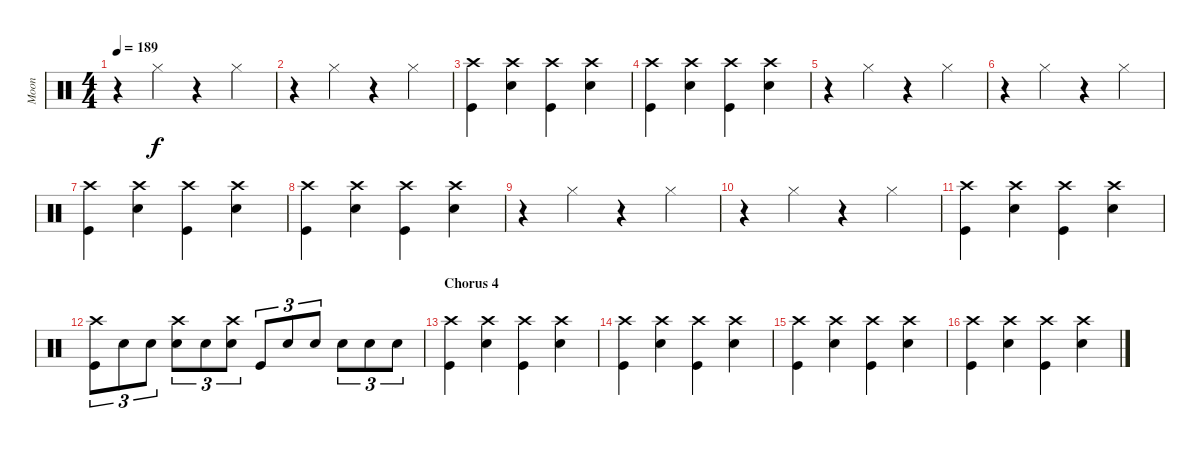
\track ("Moon" "Moon") {instrument percussion}
\staff {score}
\articulation defaults
\ts (4 4)
\tempo 189
\clef neutral
\ks c
r.4{dy f} "Hi-Hat (closed)".4 r.4 "Hi-Hat (closed)".4 |
r.4 "Hi-Hat (closed)".4 r.4 "Hi-Hat (closed)".4 |
("Crash high (hit)" "Kick (hit)").4 ("Crash high (hit)" "Snare (hit) 2").4 ("Crash high (hit)" "Kick (hit)").4 ("Crash high (hit)" "Snare (hit) 2").4 |
("Crash high (hit)" "Kick (hit)").4 ("Crash high (hit)" "Snare (hit) 2").4 ("Crash high (hit)" "Kick (hit)").4 ("Crash high (hit)" "Snare (hit) 2").4 |
r.4 "Hi-Hat (closed)".4 r.4 "Hi-Hat (closed)".4 |
r.4 "Hi-Hat (closed)".4 r.4 "Hi-Hat (closed)".4 |
("Crash high (hit)" "Kick (hit)").4 ("Crash high (hit)" "Snare (hit) 2").4 ("Crash high (hit)" "Kick (hit)").4 ("Crash high (hit)" "Snare (hit) 2").4 |
("Crash high (hit)" "Kick (hit)").4 ("Crash high (hit)" "Snare (hit) 2").4 ("Crash high (hit)" "Kick (hit)").4 ("Crash high (hit)" "Snare (hit) 2").4 |
r.4 "Hi-Hat (closed)".4 r.4 "Hi-Hat (closed)".4 |
r.4 "Hi-Hat (closed)".4 r.4 "Hi-Hat (closed)".4 |
("Crash high (hit)" "Kick (hit)").4 ("Crash high (hit)" "Snare (hit) 2").4 ("Crash high (hit)" "Kick (hit)").4 ("Crash high (hit)" "Snare (hit) 2").4 |
("Crash high (hit)" "Kick (hit)").8{tu (3 2)} "Snare (hit) 2".8{tu (3 2)} "Snare (hit) 2".8{tu (3 2)} ("Crash high (hit)" "Snare (hit) 2").8{tu (3 2)} "Snare (hit) 2".8{tu (3 2)} ("Crash high (hit)" "Snare (hit) 2").8{tu (3 2)} "Kick (hit)".8{tu (3 2)} "Snare (hit) 2".8{tu (3 2)} "Snare (hit) 2".8{tu (3 2)} "Snare (hit) 2".8{tu (3 2)} "Snare (hit) 2".8{tu (3 2)} "Snare (hit) 2".8{tu (3 2)} |
\section ("" "Chorus 4")
("Crash high (hit)" "Kick (hit)").4 ("Crash high (hit)" "Snare (hit) 2").4 ("Crash high (hit)" "Kick (hit)").4 ("Crash high (hit)" "Snare (hit) 2").4 |
("Crash high (hit)" "Kick (hit)").4 ("Crash high (hit)" "Snare (hit) 2").4 ("Crash high (hit)" "Kick (hit)").4 ("Crash high (hit)" "Snare (hit) 2").4 |
("Crash high (hit)" "Kick (hit)").4 ("Crash high (hit)" "Snare (hit) 2").4 ("Crash high (hit)" "Kick (hit)").4 ("Crash high (hit)" "Snare (hit) 2").4 |
("Crash high (hit)" "Kick (hit)").4 ("Crash high (hit)" "Snare (hit) 2").4 ("Crash high (hit)" "Kick (hit)").4 ("Crash high (hit)" "Snare (hit) 2").4
